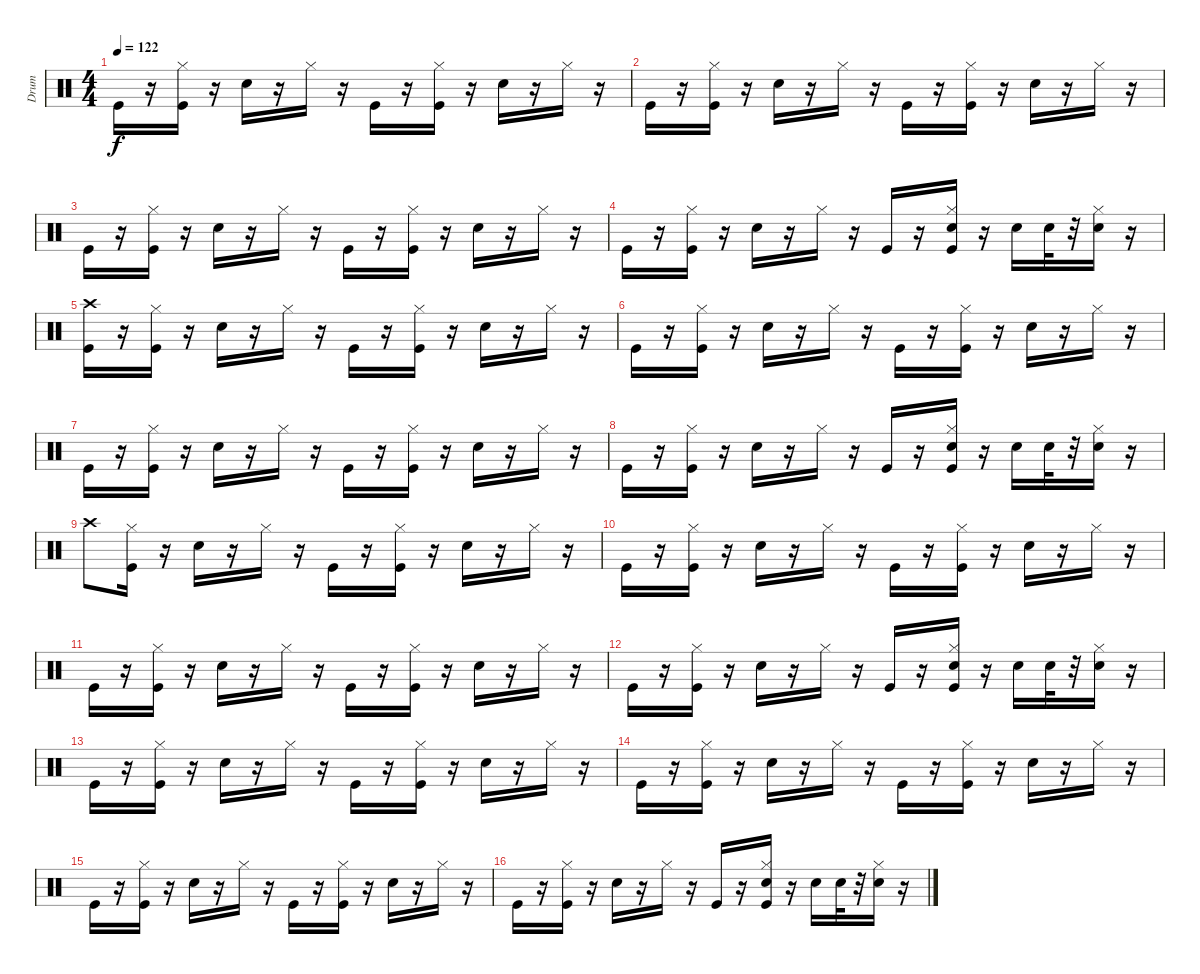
\track ("Drum" "Drum") {instrument percussion}
\staff {score}
\articulation defaults
\ts (4 4)
\tempo 122
\clef neutral
\ks c "Kick (hit)".16{dy f}
r.16 ("Kick (hit)" "Hi-Hat (closed)").16 r.16 "Snare (hit) 2".16 r.16 "Hi-Hat (closed)".16 r.16 "Kick (hit)".16 r.16 ("Kick (hit)" "Hi-Hat (closed)").16 r.16 "Snare (hit) 2".16 r.16 "Hi-Hat (closed)".16 r.16 |
"Kick (hit)".16 r.16 ("Kick (hit)" "Hi-Hat (closed)").16 r.16 "Snare (hit) 2".16 r.16 "Hi-Hat (closed)".16 r.16 "Kick (hit)".16 r.16 ("Kick (hit)" "Hi-Hat (closed)").16 r.16 "Snare (hit) 2".16 r.16 "Hi-Hat (closed)".16 r.16 |
"Kick (hit)".16 r.16 ("Kick (hit)" "Hi-Hat (closed)").16 r.16 "Snare (hit) 2".16 r.16 "Hi-Hat (closed)".16 r.16 "Kick (hit)".16 r.16 ("Kick (hit)" "Hi-Hat (closed)").16 r.16 "Snare (hit) 2".16 r.16 "Hi-Hat (closed)".16 r.16 |
"Kick (hit)".16 r.16 ("Kick (hit)" "Hi-Hat (closed)").16 r.16 "Snare (hit) 2".16 r.16 "Hi-Hat (closed)".16 r.16 "Kick (hit)".16 r.16 ("Snare (hit) 2" "Kick (hit)" "Hi-Hat (closed)").16 r.16 "Snare (hit) 2".16 "Snare (hit) 2".32 r.32 ("Snare (hit) 2" "Hi-Hat (closed)").16 r.16 |
("Kick (hit)" "Crash high (hit)").16 r.16 ("Kick (hit)" "Hi-Hat (closed)").16 r.16 "Snare (hit) 2".16 r.16 "Hi-Hat (closed)".16 r.16 "Kick (hit)".16 r.16 ("Kick (hit)" "Hi-Hat (closed)").16 r.16 "Snare (hit) 2".16 r.16 "Hi-Hat (closed)".16 r.16 |
"Kick (hit)".16 r.16 ("Kick (hit)" "Hi-Hat (closed)").16 r.16 "Snare (hit) 2".16 r.16 "Hi-Hat (closed)".16 r.16 "Kick (hit)".16 r.16 ("Kick (hit)" "Hi-Hat (closed)").16 r.16 "Snare (hit) 2".16 r.16 "Hi-Hat (closed)".16 r.16 |
"Kick (hit)".16 r.16 ("Kick (hit)" "Hi-Hat (closed)").16 r.16 "Snare (hit) 2".16 r.16 "Hi-Hat (closed)".16 r.16 "Kick (hit)".16 r.16 ("Kick (hit)" "Hi-Hat (closed)").16 r.16 "Snare (hit) 2".16 r.16 "Hi-Hat (closed)".16 r.16 |
"Kick (hit)".16 r.16 ("Kick (hit)" "Hi-Hat (closed)").16 r.16 "Snare (hit) 2".16 r.16 "Hi-Hat (closed)".16 r.16 "Kick (hit)".16 r.16 ("Snare (hit) 2" "Kick (hit)" "Hi-Hat (closed)").16 r.16 "Snare (hit) 2".16 "Snare (hit) 2".32 r.32 ("Snare (hit) 2" "Hi-Hat (closed)").16 r.16 |
"Crash high (hit)".8 ("Kick (hit)" "Hi-Hat (closed)").16 r.16 "Snare (hit) 2".16 r.16 "Hi-Hat (closed)".16 r.16 "Kick (hit)".16 r.16 ("Kick (hit)" "Hi-Hat (closed)").16 r.16 "Snare (hit) 2".16 r.16 "Hi-Hat (closed)".16 r.16 |
"Kick (hit)".16 r.16 ("Kick (hit)" "Hi-Hat (closed)").16 r.16 "Snare (hit) 2".16 r.16 "Hi-Hat (closed)".16 r.16 "Kick (hit)".16 r.16 ("Kick (hit)" "Hi-Hat (closed)").16 r.16 "Snare (hit) 2".16 r.16 "Hi-Hat (closed)".16 r.16 |
"Kick (hit)".16 r.16 ("Kick (hit)" "Hi-Hat (closed)").16 r.16 "Snare (hit) 2".16 r.16 "Hi-Hat (closed)".16 r.16 "Kick (hit)".16 r.16 ("Kick (hit)" "Hi-Hat (closed)").16 r.16 "Snare (hit) 2".16 r.16 "Hi-Hat (closed)".16 r.16 |
"Kick (hit)".16 r.16 ("Kick (hit)" "Hi-Hat (closed)").16 r.16 "Snare (hit) 2".16 r.16 "Hi-Hat (closed)".16 r.16 "Kick (hit)".16 r.16 ("Snare (hit) 2" "Kick (hit)" "Hi-Hat (closed)").16 r.16 "Snare (hit) 2".16 "Snare (hit) 2".32 r.32 ("Snare (hit) 2" "Hi-Hat (closed)").16 r.16 |
"Kick (hit)".16 r.16 ("Kick (hit)" "Hi-Hat (closed)").16 r.16 "Snare (hit) 2".16 r.16 "Hi-Hat (closed)".16 r.16 "Kick (hit)".16 r.16 ("Kick (hit)" "Hi-Hat (closed)").16 r.16 "Snare (hit) 2".16 r.16 "Hi-Hat (closed)".16 r.16 |
"Kick (hit)".16 r.16 ("Kick (hit)" "Hi-Hat (closed)").16 r.16 "Snare (hit) 2".16 r.16 "Hi-Hat (closed)".16 r.16 "Kick (hit)".16 r.16 ("Kick (hit)" "Hi-Hat (closed)").16 r.16 "Snare (hit) 2".16 r.16 "Hi-Hat (closed)".16 r.16 |
"Kick (hit)".16 r.16 ("Kick (hit)" "Hi-Hat (closed)").16 r.16 "Snare (hit) 2".16 r.16 "Hi-Hat (closed)".16 r.16 "Kick (hit)".16 r.16 ("Kick (hit)" "Hi-Hat (closed)").16 r.16 "Snare (hit) 2".16 r.16 "Hi-Hat (closed)".16 r.16 |
"Kick (hit)".16 r.16 ("Kick (hit)" "Hi-Hat (closed)").16 r.16 "Snare (hit) 2".16 r.16 "Hi-Hat (closed)".16 r.16 "Kick (hit)".16 r.16 ("Snare (hit) 2" "Kick (hit)" "Hi-Hat (closed)").16 r.16 "Snare (hit) 2".16 "Snare (hit) 2".32 r.32 ("Snare (hit) 2" "Hi-Hat (closed)").16 r.16
